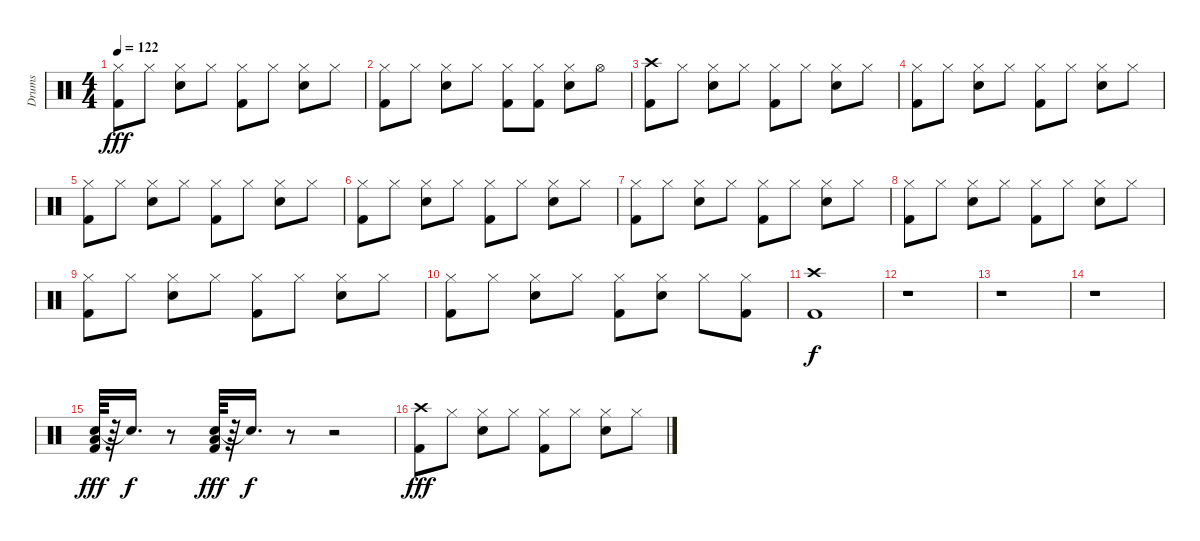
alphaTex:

\track ("Drums" "Drums") {instrument percussion}
\staff {score}
\articulation defaults
\ts (4 4)
\tempo 122
\clef neutral
\ks c
("Hi-Hat (closed)" "Kick (hit) 2").8{dy fff} "Hi-Hat (closed)".8 ("Hi-Hat (closed)" "Snare (hit) 2").8 "Hi-Hat (closed)".8 ("Hi-Hat (closed)" "Kick (hit) 2").8 "Hi-Hat (closed)".8 ("Hi-Hat (closed)" "Snare (hit) 2").8 "Hi-Hat (closed)".8 |
("Hi-Hat (closed)" "Kick (hit) 2").8 "Hi-Hat (closed)".8 ("Hi-Hat (closed)" "Snare (hit) 2").8 "Hi-Hat (closed)".8 ("Hi-Hat (closed)" "Kick (hit) 2").8 ("Hi-Hat (closed)" "Kick (hit) 2").8 ("Hi-Hat (closed)" "Snare (hit) 2").8 "Hi-Hat (open)".8 |
("Crash high (hit)" "Kick (hit) 2").8 "Hi-Hat (closed)".8 ("Hi-Hat (closed)" "Snare (hit) 2").8 "Hi-Hat (closed)".8 ("Hi-Hat (closed)" "Kick (hit) 2").8 "Hi-Hat (closed)".8 ("Hi-Hat (closed)" "Snare (hit) 2").8 "Hi-Hat (closed)".8 |
("Hi-Hat (closed)" "Kick (hit) 2").8 "Hi-Hat (closed)".8 ("Hi-Hat (closed)" "Snare (hit) 2").8 "Hi-Hat (closed)".8 ("Hi-Hat (closed)" "Kick (hit) 2").8 "Hi-Hat (closed)".8 ("Hi-Hat (closed)" "Snare (hit) 2").8 "Hi-Hat (closed)".8 |
("Hi-Hat (closed)" "Kick (hit) 2").8 "Hi-Hat (closed)".8 ("Hi-Hat (closed)" "Snare (hit) 2").8 "Hi-Hat (closed)".8 ("Hi-Hat (closed)" "Kick (hit) 2").8 "Hi-Hat (closed)".8 ("Hi-Hat (closed)" "Snare (hit) 2").8 "Hi-Hat (closed)".8 |
("Hi-Hat (closed)" "Kick (hit) 2").8 "Hi-Hat (closed)".8 ("Hi-Hat (closed)" "Snare (hit) 2").8 "Hi-Hat (closed)".8 ("Hi-Hat (closed)" "Kick (hit) 2").8 "Hi-Hat (closed)".8 ("Hi-Hat (closed)" "Snare (hit) 2").8 "Hi-Hat (closed)".8 |
("Hi-Hat (closed)" "Kick (hit) 2").8 "Hi-Hat (closed)".8 ("Hi-Hat (closed)" "Snare (hit) 2").8 "Hi-Hat (closed)".8 ("Hi-Hat (closed)" "Kick (hit) 2").8 "Hi-Hat (closed)".8 ("Hi-Hat (closed)" "Snare (hit) 2").8 "Hi-Hat (closed)".8 |
("Hi-Hat (closed)" "Kick (hit) 2").8 "Hi-Hat (closed)".8 ("Hi-Hat (closed)" "Snare (hit) 2").8 "Hi-Hat (closed)".8 ("Hi-Hat (closed)" "Kick (hit) 2").8 "Hi-Hat (closed)".8 ("Hi-Hat (closed)" "Snare (hit) 2").8 "Hi-Hat (closed)".8 |
("Hi-Hat (closed)" "Kick (hit) 2").8 "Hi-Hat (closed)".8 ("Hi-Hat (closed)" "Snare (hit) 2").8 "Hi-Hat (closed)".8 ("Hi-Hat (closed)" "Kick (hit) 2").8 "Hi-Hat (closed)".8 ("Hi-Hat (closed)" "Snare (hit) 2").8 "Hi-Hat (closed)".8 |
("Hi-Hat (closed)" "Kick (hit) 2").8 "Hi-Hat (closed)".8 ("Hi-Hat (closed)" "Snare (hit) 2").8 "Hi-Hat (closed)".8 ("Hi-Hat (closed)" "Kick (hit) 2").8 ("Hi-Hat (closed)" "Snare (hit) 2").8 "Hi-Hat (closed)".8 ("Hi-Hat (closed)" "Kick (hit) 2").8 |
("Crash high (hit)" "Kick (hit) 2").1{dy f} |
r.1 |
r.1 |
r.1 |
("Snare (hit) 2" "Low Floor Tom (hit)" "Kick (hit) 2").64{dy fff} r.64 "Snare (hit)"{t}.16{d dy f} r.8 ("Snare (hit) 2" "Low Floor Tom (hit)" "Kick (hit) 2").64{dy fff} r.64 "Snare (hit)"{t}.16{d dy f} r.8 r.2 |
("Crash high (hit)" "Kick (hit) 2").8{dy fff} "Hi-Hat (closed)".8 ("Hi-Hat (closed)" "Snare (hit) 2").8 "Hi-Hat (closed)".8 ("Hi-Hat (closed)" "Kick (hit) 2").8 "Hi-Hat (closed)".8 ("Hi-Hat (closed)" "Snare (hit) 2").8 "Hi-Hat (closed)".8
